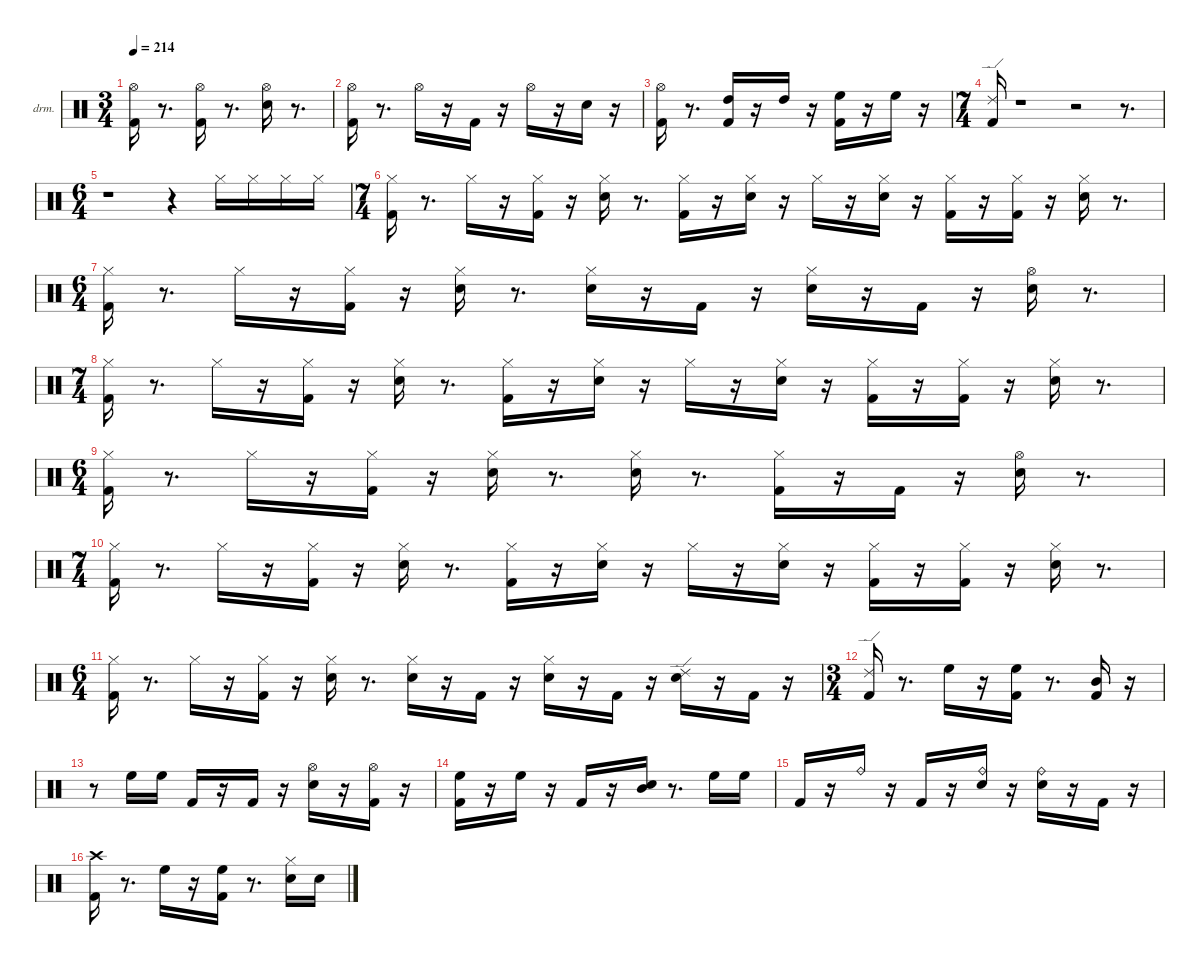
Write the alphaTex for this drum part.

\hideDynamics
\bracketExtendMode nobrackets
\firstSystemTrackNameOrientation horizontal
\otherSystemsTrackNameOrientation horizontal
\track ("EZdrummer 3" "drm.") {instrument percussion}
\staff {score}
\articulation defaults
\ts (3 4)
\tempo 214
\clef neutral
\ks aminor
("Kick (hit) 2" "Hi-Hat (open)"{acc #}).16{dy fff beam Down} r.8{d beam Down} ("Kick (hit) 2" "Hi-Hat (open)"{acc #}).16{dy f beam Down} r.8{d beam Down} ("Snare (hit) 2" "Hi-Hat (open)"{acc #}).16{beam Down} r.8{d beam Down} |
("Kick (hit) 2" "Hi-Hat (open)"{acc #}).16{dy fff beam Down} r.8{d beam Down} "Hi-Hat (open)"{acc #}.16{dy mp beam Down} r.16{beam Down} "Kick (hit) 2".16{dy f beam Up} r.16{beam Up} "Hi-Hat (open)"{acc #}.16{beam Down} r.16{beam Down} "Snare (hit) 2".16{dy ff beam Down} r.16{beam Down} |
("Kick (hit) 2" "Hi-Hat (open)"{acc #}).16{dy fff beam Down} r.8{d beam Down} ("Kick (hit) 2" "High Tom (hit)").16{dy mf beam Up} r.16{beam Up} "High Tom (hit)".16{dy mp beam Down} r.16{beam Down} ("Kick (hit) 2" "High Floor Tom (hit)").16{dy ff beam Down} r.16{beam Down} "High Floor Tom (hit)".16{dy mp beam Down} r.16{beam Down} |
\ts (7 4)
("Kick (hit) 2" "Ride (edge) 2").16{dy fff beam Up} r.1{beam Down} r.2{beam Down} r.8{d beam Down} |
\ts (6 4)
r.1{beam Down} r.4{beam Down} "Hi-Hat (closed)"{acc #}.16{dy ff beam Down} "Hi-Hat (closed)"{acc #}.16{dy mf beam Down} "Hi-Hat (closed)"{acc #}.16{dy ff beam Down} "Hi-Hat (closed)"{acc #}.16{dy mp beam Down} |
\ts (7 4)
("Kick (hit) 2" "Hi-Hat (closed)"{acc #}).16{dy ff beam Down} r.8{d beam Down} "Hi-Hat (closed)"{acc #}.16{dy mf beam Down} r.16{beam Down} ("Kick (hit) 2" "Hi-Hat (closed)"{acc #}).16{dy f beam Down} r.16{beam Down} ("Snare (hit) 2" "Hi-Hat (closed)"{acc #}).16{beam Down} r.8{d beam Down} ("Kick (hit) 2" "Hi-Hat (closed)"{acc #}).16{beam Down} r.16{beam Down} ("Snare (hit) 2" "Hi-Hat (closed)"{acc #}).16{beam Down} r.16{beam Down} "Hi-Hat (closed)"{acc #}.16{dy p beam Down} r.16{beam Down} ("Snare (hit) 2" "Hi-Hat (closed)"{acc #}).16{dy f beam Down} r.16{beam Down} ("Kick (hit) 2" "Hi-Hat (closed)"{acc #}).16{beam Down} r.16{beam Down} ("Kick (hit) 2" "Hi-Hat (closed)"{acc #}).16{beam Down} r.16{beam Down} ("Snare (hit) 2" "Hi-Hat (closed)"{acc #}).16{beam Down} r.8{d beam Down} |
\ts (6 4)
("Kick (hit) 2" "Hi-Hat (closed)"{acc #}).16{beam Down} r.8{d beam Down} "Hi-Hat (closed)"{acc #}.16{dy mf beam Down} r.16{beam Down} ("Kick (hit) 2" "Hi-Hat (closed)"{acc #}).16{dy f beam Down} r.16{beam Down} ("Snare (hit) 2" "Hi-Hat (closed)"{acc #}).16{beam Down} r.8{d beam Down} ("Snare (hit) 2" "Hi-Hat (closed)"{acc #}).16{dy fff beam Down} r.16{beam Down} "Kick (hit) 2".16{dy mf beam Up} r.16{beam Up} ("Snare (hit) 2" "Hi-Hat (closed)"{acc #}).16{beam Down} r.16{beam Down} "Kick (hit) 2".16{beam Up} r.16{beam Up} ("Snare (hit) 2" "Hi-Hat (open)"{acc #}).16{dy ff beam Down} r.8{d beam Down} |
\ts (7 4)
("Kick (hit) 2" "Hi-Hat (closed)"{acc #}).16{dy f beam Down} r.8{d beam Down} "Hi-Hat (closed)"{acc #}.16{dy mf beam Down} r.16{beam Down} ("Kick (hit) 2" "Hi-Hat (closed)"{acc #}).16{dy pp beam Down} r.16{beam Down} ("Snare (hit) 2" "Hi-Hat (closed)"{acc #}).16{dy ff beam Down} r.8{d beam Down} ("Kick (hit) 2" "Hi-Hat (closed)"{acc #}).16{dy f beam Down} r.16{beam Down} ("Snare (hit) 2" "Hi-Hat (closed)"{acc #}).16{beam Down} r.16{beam Down} "Hi-Hat (closed)"{acc #}.16{dy p beam Down} r.16{beam Down} ("Snare (hit) 2" "Hi-Hat (closed)"{acc #}).16{dy f beam Down} r.16{beam Down} ("Kick (hit) 2" "Hi-Hat (closed)"{acc #}).16{beam Down} r.16{beam Down} ("Kick (hit) 2" "Hi-Hat (closed)"{acc #}).16{beam Down} r.16{beam Down} ("Snare (hit) 2" "Hi-Hat (closed)"{acc #}).16{beam Down} r.8{d beam Down} |
\ts (6 4)
("Kick (hit) 2" "Hi-Hat (closed)"{acc #}).16{beam Down} r.8{d beam Down} "Hi-Hat (closed)"{acc #}.16{dy mf beam Down} r.16{beam Down} ("Kick (hit) 2" "Hi-Hat (closed)"{acc #}).16{dy pp beam Down} r.16{beam Down} ("Snare (hit) 2" "Hi-Hat (closed)"{acc #}).16{dy f beam Down} r.8{d beam Down} ("Snare (hit) 2" "Hi-Hat (closed)"{acc #}).16{dy fff beam Down} r.8{d beam Down} ("Kick (hit) 2" "Hi-Hat (closed)"{acc #}).16{dy mf beam Down} r.16{beam Down} "Kick (hit) 2".16{dy ff beam Up} r.16{beam Up} ("Snare (hit) 2" "Hi-Hat (open)"{acc #}).16{beam Down} r.8{d beam Down} |
\ts (7 4)
("Kick (hit) 2" "Hi-Hat (closed)"{acc #}).16{dy f beam Down} r.8{d beam Down} "Hi-Hat (closed)"{acc #}.16{dy mf beam Down} r.16{beam Down} ("Kick (hit) 2" "Hi-Hat (closed)"{acc #}).16{dy f beam Down} r.16{beam Down} ("Snare (hit) 2" "Hi-Hat (closed)"{acc #}).16{beam Down} r.8{d beam Down} ("Kick (hit) 2" "Hi-Hat (closed)"{acc #}).16{beam Down} r.16{beam Down} ("Snare (hit) 2" "Hi-Hat (closed)"{acc #}).16{beam Down} r.16{beam Down} "Hi-Hat (closed)"{acc #}.16{dy p beam Down} r.16{beam Down} ("Snare (hit) 2" "Hi-Hat (closed)"{acc #}).16{dy f beam Down} r.16{beam Down} ("Kick (hit) 2" "Hi-Hat (closed)"{acc #}).16{beam Down} r.16{beam Down} ("Kick (hit) 2" "Hi-Hat (closed)"{acc #}).16{beam Down} r.16{beam Down} ("Snare (hit) 2" "Hi-Hat (closed)"{acc #}).16{beam Down} r.8{d beam Down} |
\ts (6 4)
("Kick (hit) 2" "Hi-Hat (closed)"{acc #}).16{beam Down} r.8{d beam Down} "Hi-Hat (closed)"{acc #}.16{dy mf beam Down} r.16{beam Down} ("Kick (hit) 2" "Hi-Hat (closed)"{acc #}).16{dy pp beam Down} r.16{beam Down} ("Snare (hit) 2" "Hi-Hat (closed)"{acc #}).16{dy f beam Down} r.8{d beam Down} ("Snare (hit) 2" "Hi-Hat (closed)"{acc #}).16{dy fff beam Down} r.16{beam Down} "Kick (hit) 2".16{dy mf beam Up} r.16{beam Up} ("Snare (hit) 2" "Hi-Hat (closed)"{acc #}).16{beam Down} r.16{beam Down} "Kick (hit) 2".16{beam Up} r.16{beam Up} ("Snare (hit) 2" "Ride (edge) 2").16{dy ff beam Down} r.16{beam Down} "Kick (hit) 2".16{dy mf beam Up} r.16{beam Up} |
\ts (3 4)
("Kick (hit) 2" "Ride (edge) 2").16{dy fff beam Up} r.8{d beam Up} "High Floor Tom (hit)".16{dy mf beam Down} r.16{beam Down} ("Kick (hit) 2" "High Floor Tom (hit)").16{dy fff beam Down} r.8{d beam Down} ("Kick (hit) 2" "Mid Tom (hit)").16{dy ff beam Up} r.16{beam Up} |
r.8{beam Down} "High Floor Tom (hit)".16{dy f beam Down} "High Floor Tom (hit)".16{dy mp beam Down} "Kick (hit) 2".16{dy mf beam Up} r.16{beam Up} "Kick (hit) 2".16{dy fff beam Up} r.16{beam Up} ("Snare (hit) 2" "Hi-Hat (open)"{acc #}).16{dy ff beam Down} r.16{beam Down} ("Kick (hit) 2" "Hi-Hat (open)"{acc #}).16{dy mp beam Down} r.16{beam Down} |
("Kick (hit) 2" "High Floor Tom (hit)").16{dy fff beam Down} r.16{beam Down} "High Floor Tom (hit)".16{dy mf beam Down} r.16{beam Down} "Kick (hit) 2".16{dy mp beam Up} r.16{beam Up} ("Snare (hit) 2" "Mid Tom (hit)").16{dy fff beam Down} r.8{d beam Down} "High Floor Tom (hit)".16{dy ff beam Down} "High Floor Tom (hit)".16{dy mf beam Down} |
"Kick (hit) 2".16{beam Up} r.16{beam Up} "Ride (bell)".16{dy fff beam Down} r.16{beam Down} "Kick (hit) 2".16{dy ff beam Up} r.16{beam Up} ("Snare (hit) 2" "Ride (bell)").16{dy f beam Down} r.16{beam Down} ("Snare (hit) 2" "Ride (bell)").16{dy fff beam Down} r.16{beam Down} "Kick (hit) 2".16{dy mf beam Up} r.16{beam Up} |
("Kick (hit) 2" "Crash high (hit)"{acc #}).16{dy fff beam Down} r.8{d beam Down} "High Floor Tom (hit)".16{beam Down} r.16{beam Down} ("Kick (hit) 2" "High Floor Tom (hit)").16{dy f beam Down} r.8{d beam Down} ("Snare (hit) 2" "Hi-Hat (closed)"{acc #}).16{dy p beam Down} "Snare (hit) 2".16{beam Down}
